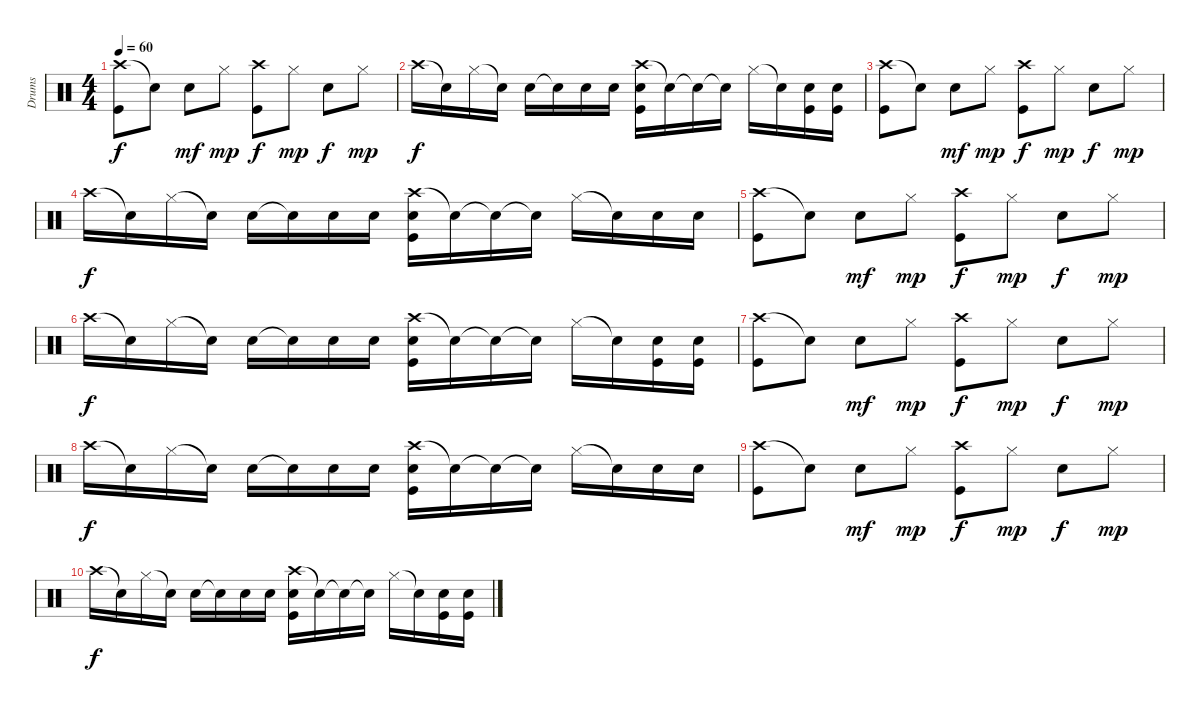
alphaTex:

\track ("Drums" "Drums") {instrument percussion}
\staff {score}
\articulation defaults
\ts (4 4)
\tempo 60
\clef neutral
\ks c
("Crash high (hit)" "Kick (hit)").8{dy f} "Snare (hit)"{t}.8 "Snare (hit) 2".8{dy mf} "Hi-Hat (closed)".8{dy mp} ("Crash high (hit)" "Kick (hit)").8{dy f} "Hi-Hat (closed)".8{dy mp} "Snare (hit) 2".8{dy f} "Hi-Hat (closed)".8{dy mp} |
"Crash high (hit)".16{dy f} "Snare (hit)"{t}.16 "Hi-Hat (closed)".16 "Snare (hit)"{t}.16 "Snare (hit) 2".16 "Snare (hit)"{t}.16 "Snare (hit) 2".16 "Snare (hit) 2".16 ("Crash high (hit)" "Snare (hit) 2" "Kick (hit)").16 "Snare (hit)"{t}.16 "Snare (hit)"{t}.16 "Snare (hit) 2"{t}.16 "Hi-Hat (closed)".16 "Snare (hit)"{t}.16 ("Snare (hit) 2" "Kick (hit)").16 ("Snare (hit) 2" "Kick (hit)").16 |
("Crash high (hit)" "Kick (hit)").8 "Snare (hit)"{t}.8 "Snare (hit) 2".8{dy mf} "Hi-Hat (closed)".8{dy mp} ("Crash high (hit)" "Kick (hit)").8{dy f} "Hi-Hat (closed)".8{dy mp} "Snare (hit) 2".8{dy f} "Hi-Hat (closed)".8{dy mp} |
"Crash high (hit)".16{dy f} "Snare (hit)"{t}.16 "Hi-Hat (closed)".16 "Snare (hit)"{t}.16 "Snare (hit) 2".16 "Snare (hit)"{t}.16 "Snare (hit) 2".16 "Snare (hit) 2".16 ("Crash high (hit)" "Snare (hit) 2" "Kick (hit)").16 "Snare (hit)"{t}.16 "Snare (hit)"{t}.16 "Snare (hit) 2"{t}.16 "Hi-Hat (closed)".16 "Snare (hit)"{t}.16 "Snare (hit) 2".16 "Snare (hit) 2".16 |
("Crash high (hit)" "Kick (hit)").8 "Snare (hit)"{t}.8 "Snare (hit) 2".8{dy mf} "Hi-Hat (closed)".8{dy mp} ("Crash high (hit)" "Kick (hit)").8{dy f} "Hi-Hat (closed)".8{dy mp} "Snare (hit) 2".8{dy f} "Hi-Hat (closed)".8{dy mp} |
"Crash high (hit)".16{dy f} "Snare (hit)"{t}.16 "Hi-Hat (closed)".16 "Snare (hit)"{t}.16 "Snare (hit) 2".16 "Snare (hit)"{t}.16 "Snare (hit) 2".16 "Snare (hit) 2".16 ("Crash high (hit)" "Snare (hit) 2" "Kick (hit)").16 "Snare (hit)"{t}.16 "Snare (hit)"{t}.16 "Snare (hit) 2"{t}.16 "Hi-Hat (closed)".16 "Snare (hit)"{t}.16 ("Snare (hit) 2" "Kick (hit)").16 ("Snare (hit) 2" "Kick (hit)").16 |
("Crash high (hit)" "Kick (hit)").8 "Snare (hit)"{t}.8 "Snare (hit) 2".8{dy mf} "Hi-Hat (closed)".8{dy mp} ("Crash high (hit)" "Kick (hit)").8{dy f} "Hi-Hat (closed)".8{dy mp} "Snare (hit) 2".8{dy f} "Hi-Hat (closed)".8{dy mp} |
"Crash high (hit)".16{dy f} "Snare (hit)"{t}.16 "Hi-Hat (closed)".16 "Snare (hit)"{t}.16 "Snare (hit) 2".16 "Snare (hit)"{t}.16 "Snare (hit) 2".16 "Snare (hit) 2".16 ("Crash high (hit)" "Snare (hit) 2" "Kick (hit)").16 "Snare (hit)"{t}.16 "Snare (hit)"{t}.16 "Snare (hit) 2"{t}.16 "Hi-Hat (closed)".16 "Snare (hit)"{t}.16 "Snare (hit) 2".16 "Snare (hit) 2".16 |
("Crash high (hit)" "Kick (hit)").8 "Snare (hit)"{t}.8 "Snare (hit) 2".8{dy mf} "Hi-Hat (closed)".8{dy mp} ("Crash high (hit)" "Kick (hit)").8{dy f} "Hi-Hat (closed)".8{dy mp} "Snare (hit) 2".8{dy f} "Hi-Hat (closed)".8{dy mp} |
"Crash high (hit)".16{dy f} "Snare (hit)"{t}.16 "Hi-Hat (closed)".16 "Snare (hit)"{t}.16 "Snare (hit) 2".16 "Snare (hit)"{t}.16 "Snare (hit) 2".16 "Snare (hit) 2".16 ("Crash high (hit)" "Snare (hit) 2" "Kick (hit)").16 "Snare (hit)"{t}.16 "Snare (hit)"{t}.16 "Snare (hit) 2"{t}.16 "Hi-Hat (closed)".16 "Snare (hit)"{t}.16 ("Snare (hit) 2" "Kick (hit)").16 ("Snare (hit) 2" "Kick (hit)").16
